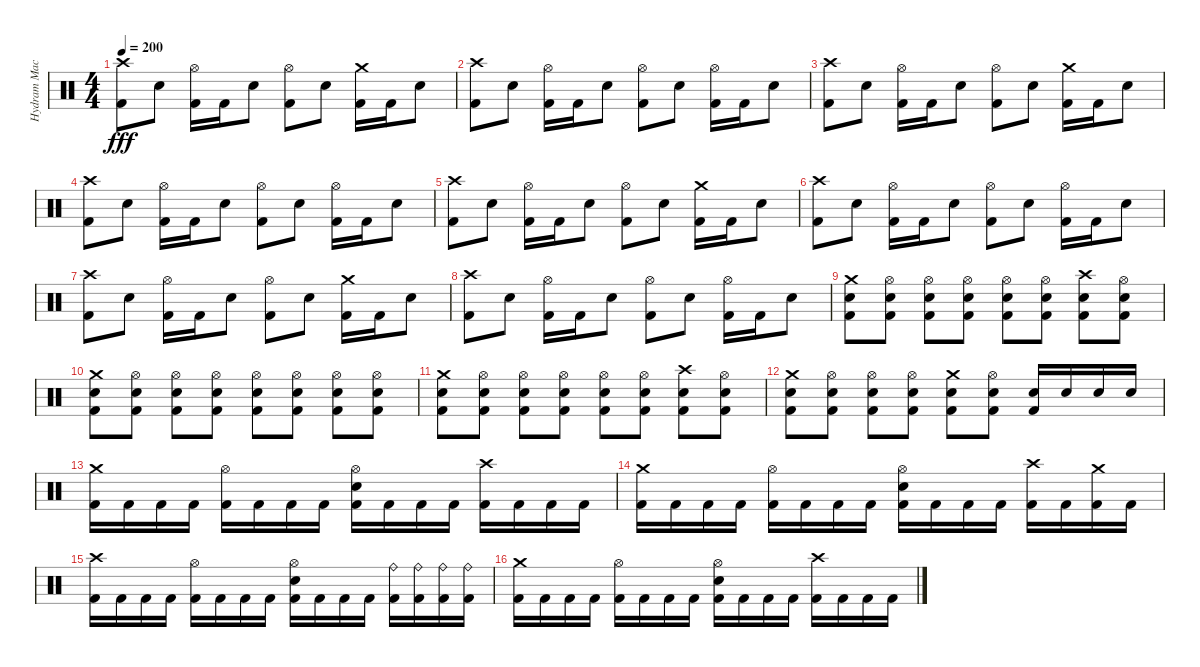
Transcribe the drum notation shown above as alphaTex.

\track ("Hydram Machine" "Hydram Mac") {instrument percussion}
\staff {score}
\articulation defaults
\ts (4 4)
\tempo 200
\clef neutral
\ks c
("Crash high (hit)" "Kick (hit) 2").8{dy fff} "Electric Snare (hit)".8 ("Hi-Hat (open)" "Kick (hit) 2").16 "Kick (hit) 2".16 "Electric Snare (hit)".8 ("Hi-Hat (open)" "Kick (hit) 2").8 "Electric Snare (hit)".8 ("Crash medium (hit)" "Kick (hit) 2").16 "Kick (hit) 2".16 "Electric Snare (hit)".8 |
("Crash high (hit)" "Kick (hit) 2").8 "Electric Snare (hit)".8 ("Hi-Hat (open)" "Kick (hit) 2").16 "Kick (hit) 2".16 "Electric Snare (hit)".8 ("Hi-Hat (open)" "Kick (hit) 2").8 "Electric Snare (hit)".8 ("Hi-Hat (open)" "Kick (hit) 2").16 "Kick (hit) 2".16 "Electric Snare (hit)".8 |
("Crash high (hit)" "Kick (hit) 2").8 "Electric Snare (hit)".8 ("Hi-Hat (open)" "Kick (hit) 2").16 "Kick (hit) 2".16 "Electric Snare (hit)".8 ("Hi-Hat (open)" "Kick (hit) 2").8 "Electric Snare (hit)".8 ("Crash medium (hit)" "Kick (hit) 2").16 "Kick (hit) 2".16 "Electric Snare (hit)".8 |
("Crash high (hit)" "Kick (hit) 2").8 "Electric Snare (hit)".8 ("Hi-Hat (open)" "Kick (hit) 2").16 "Kick (hit) 2".16 "Electric Snare (hit)".8 ("Hi-Hat (open)" "Kick (hit) 2").8 "Electric Snare (hit)".8 ("Hi-Hat (open)" "Kick (hit) 2").16 "Kick (hit) 2".16 "Electric Snare (hit)".8 |
("Crash high (hit)" "Kick (hit) 2").8 "Electric Snare (hit)".8 ("Hi-Hat (open)" "Kick (hit) 2").16 "Kick (hit) 2".16 "Electric Snare (hit)".8 ("Hi-Hat (open)" "Kick (hit) 2").8 "Electric Snare (hit)".8 ("Crash medium (hit)" "Kick (hit) 2").16 "Kick (hit) 2".16 "Electric Snare (hit)".8 |
("Crash high (hit)" "Kick (hit) 2").8 "Electric Snare (hit)".8 ("Hi-Hat (open)" "Kick (hit) 2").16 "Kick (hit) 2".16 "Electric Snare (hit)".8 ("Hi-Hat (open)" "Kick (hit) 2").8 "Electric Snare (hit)".8 ("Hi-Hat (open)" "Kick (hit) 2").16 "Kick (hit) 2".16 "Electric Snare (hit)".8 |
("Crash high (hit)" "Kick (hit) 2").8 "Electric Snare (hit)".8 ("Hi-Hat (open)" "Kick (hit) 2").16 "Kick (hit) 2".16 "Electric Snare (hit)".8 ("Hi-Hat (open)" "Kick (hit) 2").8 "Electric Snare (hit)".8 ("Crash medium (hit)" "Kick (hit) 2").16 "Kick (hit) 2".16 "Electric Snare (hit)".8 |
("Crash high (hit)" "Kick (hit) 2").8 "Electric Snare (hit)".8 ("Hi-Hat (open)" "Kick (hit) 2").16 "Kick (hit) 2".16 "Electric Snare (hit)".8 ("Hi-Hat (open)" "Kick (hit) 2").8 "Electric Snare (hit)".8 ("Hi-Hat (open)" "Kick (hit) 2").16 "Kick (hit) 2".16 "Electric Snare (hit)".8 |
("Crash medium (hit)" "Electric Snare (hit)" "Kick (hit) 2").8 ("Hi-Hat (open)" "Electric Snare (hit)" "Kick (hit) 2").8 ("Hi-Hat (open)" "Electric Snare (hit)" "Kick (hit) 2").8 ("Hi-Hat (open)" "Electric Snare (hit)" "Kick (hit) 2").8 ("Hi-Hat (open)" "Electric Snare (hit)" "Kick (hit) 2").8 ("Hi-Hat (open)" "Electric Snare (hit)" "Kick (hit) 2").8 ("Crash high (hit)" "Electric Snare (hit)" "Kick (hit) 2").8 ("Hi-Hat (open)" "Electric Snare (hit)" "Kick (hit) 2").8 |
("Crash medium (hit)" "Electric Snare (hit)" "Kick (hit) 2").8 ("Hi-Hat (open)" "Electric Snare (hit)" "Kick (hit) 2").8 ("Hi-Hat (open)" "Electric Snare (hit)" "Kick (hit) 2").8 ("Hi-Hat (open)" "Electric Snare (hit)" "Kick (hit) 2").8 ("Hi-Hat (open)" "Electric Snare (hit)" "Kick (hit) 2").8 ("Hi-Hat (open)" "Electric Snare (hit)" "Kick (hit) 2").8 ("Hi-Hat (open)" "Electric Snare (hit)" "Kick (hit) 2").8 ("Hi-Hat (open)" "Electric Snare (hit)" "Kick (hit) 2").8 |
("Crash medium (hit)" "Electric Snare (hit)" "Kick (hit) 2").8 ("Hi-Hat (open)" "Electric Snare (hit)" "Kick (hit) 2").8 ("Hi-Hat (open)" "Electric Snare (hit)" "Kick (hit) 2").8 ("Hi-Hat (open)" "Electric Snare (hit)" "Kick (hit) 2").8 ("Hi-Hat (open)" "Electric Snare (hit)" "Kick (hit) 2").8 ("Hi-Hat (open)" "Electric Snare (hit)" "Kick (hit) 2").8 ("Crash high (hit)" "Electric Snare (hit)" "Kick (hit) 2").8 ("Hi-Hat (open)" "Electric Snare (hit)" "Kick (hit) 2").8 |
("Crash medium (hit)" "Electric Snare (hit)" "Kick (hit) 2").8 ("Hi-Hat (open)" "Electric Snare (hit)" "Kick (hit) 2").8 ("Hi-Hat (open)" "Electric Snare (hit)" "Kick (hit) 2").8 ("Hi-Hat (open)" "Electric Snare (hit)" "Kick (hit) 2").8 ("Crash medium (hit)" "Electric Snare (hit)" "Kick (hit) 2").8 ("Hi-Hat (open)" "Electric Snare (hit)" "Kick (hit) 2").8 ("Electric Snare (hit)" "Kick (hit) 2").16 "Electric Snare (hit)".16 "Electric Snare (hit)".16 "Electric Snare (hit)".16 |
("Crash medium (hit)" "Kick (hit) 2").16 "Kick (hit) 2".16 "Kick (hit) 2".16 "Kick (hit) 2".16 ("Hi-Hat (open)" "Kick (hit) 2").16 "Kick (hit) 2".16 "Kick (hit) 2".16 "Kick (hit) 2".16 ("Hi-Hat (open)" "Electric Snare (hit)" "Kick (hit) 2").16 "Kick (hit) 2".16 "Kick (hit) 2".16 "Kick (hit) 2".16 ("Crash high (hit)" "Kick (hit) 2").16 "Kick (hit) 2".16 "Kick (hit) 2".16 "Kick (hit) 2".16 |
("Crash medium (hit)" "Kick (hit) 2").16 "Kick (hit) 2".16 "Kick (hit) 2".16 "Kick (hit) 2".16 ("Hi-Hat (open)" "Kick (hit) 2").16 "Kick (hit) 2".16 "Kick (hit) 2".16 "Kick (hit) 2".16 ("Hi-Hat (open)" "Electric Snare (hit)" "Kick (hit) 2").16 "Kick (hit) 2".16 "Kick (hit) 2".16 "Kick (hit) 2".16 ("Crash high (hit)" "Kick (hit) 2").16 "Kick (hit) 2".16 ("Crash medium (hit)" "Kick (hit) 2").16 "Kick (hit) 2".16 |
("Crash high (hit)" "Kick (hit) 2").16 "Kick (hit) 2".16 "Kick (hit) 2".16 "Kick (hit) 2".16 ("Hi-Hat (open)" "Kick (hit) 2").16 "Kick (hit) 2".16 "Kick (hit) 2".16 "Kick (hit) 2".16 ("Hi-Hat (open)" "Electric Snare (hit)" "Kick (hit) 2").16 "Kick (hit) 2".16 "Kick (hit) 2".16 "Kick (hit) 2".16 ("Ride (bell)" "Kick (hit) 2").16 ("Ride (bell)" "Kick (hit) 2").16 ("Ride (bell)" "Kick (hit) 2").16 ("Ride (bell)" "Kick (hit) 2").16 |
("Crash medium (hit)" "Kick (hit) 2").16 "Kick (hit) 2".16 "Kick (hit) 2".16 "Kick (hit) 2".16 ("Hi-Hat (open)" "Kick (hit) 2").16 "Kick (hit) 2".16 "Kick (hit) 2".16 "Kick (hit) 2".16 ("Hi-Hat (open)" "Electric Snare (hit)" "Kick (hit) 2").16 "Kick (hit) 2".16 "Kick (hit) 2".16 "Kick (hit) 2".16 ("Crash high (hit)" "Kick (hit) 2").16 "Kick (hit) 2".16 "Kick (hit) 2".16 "Kick (hit) 2".16
